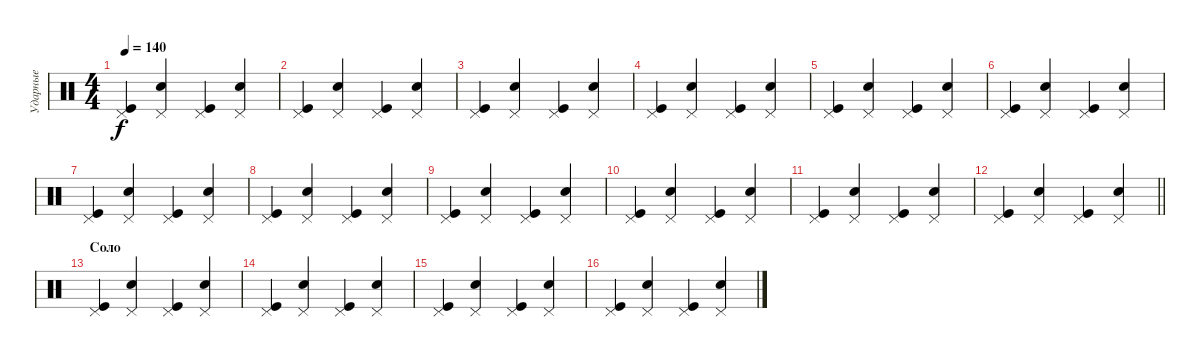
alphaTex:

\track ("Ударные" "Ударные") {instrument percussion}
\staff {score}
\articulation defaults
\ts (4 4)
\tempo 140
\clef neutral
\ks c
("Kick (hit)" "Pedal Hi-Hat (hit)").4{dy f} ("Electric Snare (hit)" "Pedal Hi-Hat (hit)").4 ("Kick (hit)" "Pedal Hi-Hat (hit)").4 ("Electric Snare (hit)" "Pedal Hi-Hat (hit)").4 |
("Kick (hit)" "Pedal Hi-Hat (hit)").4 ("Electric Snare (hit)" "Pedal Hi-Hat (hit)").4 ("Kick (hit)" "Pedal Hi-Hat (hit)").4 ("Electric Snare (hit)" "Pedal Hi-Hat (hit)").4 |
("Kick (hit)" "Pedal Hi-Hat (hit)").4 ("Electric Snare (hit)" "Pedal Hi-Hat (hit)").4 ("Kick (hit)" "Pedal Hi-Hat (hit)").4 ("Electric Snare (hit)" "Pedal Hi-Hat (hit)").4 |
("Kick (hit)" "Pedal Hi-Hat (hit)").4 ("Electric Snare (hit)" "Pedal Hi-Hat (hit)").4 ("Kick (hit)" "Pedal Hi-Hat (hit)").4 ("Electric Snare (hit)" "Pedal Hi-Hat (hit)").4 |
("Kick (hit)" "Pedal Hi-Hat (hit)").4 ("Electric Snare (hit)" "Pedal Hi-Hat (hit)").4 ("Kick (hit)" "Pedal Hi-Hat (hit)").4 ("Electric Snare (hit)" "Pedal Hi-Hat (hit)").4 |
("Kick (hit)" "Pedal Hi-Hat (hit)").4 ("Electric Snare (hit)" "Pedal Hi-Hat (hit)").4 ("Kick (hit)" "Pedal Hi-Hat (hit)").4 ("Electric Snare (hit)" "Pedal Hi-Hat (hit)").4 |
("Kick (hit)" "Pedal Hi-Hat (hit)").4 ("Electric Snare (hit)" "Pedal Hi-Hat (hit)").4 ("Kick (hit)" "Pedal Hi-Hat (hit)").4 ("Electric Snare (hit)" "Pedal Hi-Hat (hit)").4 |
("Kick (hit)" "Pedal Hi-Hat (hit)").4 ("Electric Snare (hit)" "Pedal Hi-Hat (hit)").4 ("Kick (hit)" "Pedal Hi-Hat (hit)").4 ("Electric Snare (hit)" "Pedal Hi-Hat (hit)").4 |
("Kick (hit)" "Pedal Hi-Hat (hit)").4 ("Electric Snare (hit)" "Pedal Hi-Hat (hit)").4 ("Kick (hit)" "Pedal Hi-Hat (hit)").4 ("Electric Snare (hit)" "Pedal Hi-Hat (hit)").4 |
("Kick (hit)" "Pedal Hi-Hat (hit)").4 ("Electric Snare (hit)" "Pedal Hi-Hat (hit)").4 ("Kick (hit)" "Pedal Hi-Hat (hit)").4 ("Electric Snare (hit)" "Pedal Hi-Hat (hit)").4 |
("Kick (hit)" "Pedal Hi-Hat (hit)").4 ("Electric Snare (hit)" "Pedal Hi-Hat (hit)").4 ("Kick (hit)" "Pedal Hi-Hat (hit)").4 ("Electric Snare (hit)" "Pedal Hi-Hat (hit)").4 |
\barLineRight lightlight
("Kick (hit)" "Pedal Hi-Hat (hit)").4 ("Electric Snare (hit)" "Pedal Hi-Hat (hit)").4 ("Kick (hit)" "Pedal Hi-Hat (hit)").4 ("Electric Snare (hit)" "Pedal Hi-Hat (hit)").4 |
\section ("" "Соло")
("Kick (hit)" "Pedal Hi-Hat (hit)").4 ("Electric Snare (hit)" "Pedal Hi-Hat (hit)").4 ("Kick (hit)" "Pedal Hi-Hat (hit)").4 ("Electric Snare (hit)" "Pedal Hi-Hat (hit)").4 |
("Kick (hit)" "Pedal Hi-Hat (hit)").4 ("Electric Snare (hit)" "Pedal Hi-Hat (hit)").4 ("Kick (hit)" "Pedal Hi-Hat (hit)").4 ("Electric Snare (hit)" "Pedal Hi-Hat (hit)").4 |
("Kick (hit)" "Pedal Hi-Hat (hit)").4 ("Electric Snare (hit)" "Pedal Hi-Hat (hit)").4 ("Kick (hit)" "Pedal Hi-Hat (hit)").4 ("Electric Snare (hit)" "Pedal Hi-Hat (hit)").4 |
("Kick (hit)" "Pedal Hi-Hat (hit)").4 ("Electric Snare (hit)" "Pedal Hi-Hat (hit)").4 ("Kick (hit)" "Pedal Hi-Hat (hit)").4 ("Electric Snare (hit)" "Pedal Hi-Hat (hit)").4
